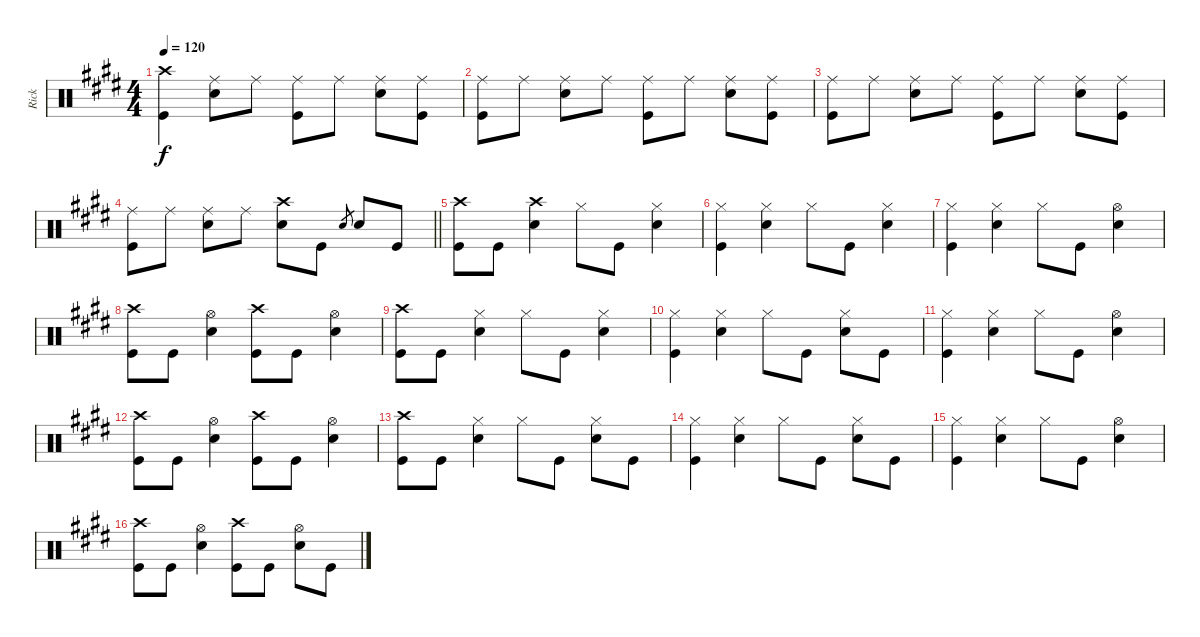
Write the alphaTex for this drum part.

\track ("Rick" "Rick") {instrument percussion}
\staff {score}
\articulation defaults
\ts (4 4)
\tempo 120
\clef neutral
\ks c#minor
("Crash high (hit)" "Kick (hit)").4{dy f} ("Ride (middle)" "Snare (hit) 2").8 "Ride (middle)".8 ("Ride (middle)" "Kick (hit)").8 "Ride (middle)".8 ("Ride (middle)" "Snare (hit) 2").8 ("Ride (middle)" "Kick (hit)").8 |
("Ride (middle)" "Kick (hit)").8 "Ride (middle)".8 ("Ride (middle)" "Snare (hit) 2").8 "Ride (middle)".8 ("Ride (middle)" "Kick (hit)").8 "Ride (middle)".8 ("Ride (middle)" "Snare (hit) 2").8 ("Ride (middle)" "Kick (hit)").8 |
("Ride (middle)" "Kick (hit)").8 "Ride (middle)".8 ("Ride (middle)" "Snare (hit) 2").8 "Ride (middle)".8 ("Ride (middle)" "Kick (hit)").8 "Ride (middle)".8 ("Ride (middle)" "Snare (hit) 2").8 ("Ride (middle)" "Kick (hit)").8 |
\barLineRight lightlight
("Ride (middle)" "Kick (hit)").8 "Ride (middle)".8 ("Ride (middle)" "Snare (hit) 2").8 "Ride (middle)".8 ("Crash high (hit)" "Snare (hit) 2").8 "Kick (hit)".8 "Snare (hit) 2".8{gr} "Snare (hit) 2".8 "Kick (hit)".8 |
("Crash high (hit)" "Kick (hit)").8 "Kick (hit)".8 ("Crash high (hit)" "Snare (hit) 2").4 "Hi-Hat (closed)".8 "Kick (hit)".8 ("Hi-Hat (closed)" "Snare (hit) 2").4 |
("Hi-Hat (closed)" "Kick (hit)").4 ("Hi-Hat (closed)" "Snare (hit) 2").4 "Hi-Hat (closed)".8 "Kick (hit)".8 ("Hi-Hat (closed)" "Snare (hit) 2").4 |
("Hi-Hat (closed)" "Kick (hit)").4 ("Hi-Hat (closed)" "Snare (hit) 2").4 "Hi-Hat (closed)".8 "Kick (hit)".8 ("Hi-Hat (open)" "Snare (hit) 2").4 |
("Crash high (hit)" "Kick (hit)").8 "Kick (hit)".8 ("Hi-Hat (open)" "Snare (hit) 2").4 ("Crash high (hit)" "Kick (hit)").8 "Kick (hit)".8 ("Hi-Hat (open)" "Snare (hit) 2").4 |
("Crash high (hit)" "Kick (hit)").8 "Kick (hit)".8 ("Hi-Hat (closed)" "Snare (hit) 2").4 "Hi-Hat (closed)".8 "Kick (hit)".8 ("Hi-Hat (closed)" "Snare (hit) 2").4 |
("Hi-Hat (closed)" "Kick (hit)").4 ("Hi-Hat (closed)" "Snare (hit) 2").4 "Hi-Hat (closed)".8 "Kick (hit)".8 ("Hi-Hat (closed)" "Snare (hit) 2").8 "Kick (hit)".8 |
("Hi-Hat (closed)" "Kick (hit)").4 ("Hi-Hat (closed)" "Snare (hit) 2").4 "Hi-Hat (closed)".8 "Kick (hit)".8 ("Hi-Hat (open)" "Snare (hit) 2").4 |
("Crash high (hit)" "Kick (hit)").8 "Kick (hit)".8 ("Hi-Hat (open)" "Snare (hit) 2").4 ("Crash high (hit)" "Kick (hit)").8 "Kick (hit)".8 ("Hi-Hat (open)" "Snare (hit) 2").4 |
("Crash high (hit)" "Kick (hit)").8 "Kick (hit)".8 ("Hi-Hat (closed)" "Snare (hit) 2").4 "Hi-Hat (closed)".8 "Kick (hit)".8 ("Hi-Hat (closed)" "Snare (hit) 2").8 "Kick (hit)".8 |
("Hi-Hat (closed)" "Kick (hit)").4 ("Hi-Hat (closed)" "Snare (hit) 2").4 "Hi-Hat (closed)".8 "Kick (hit)".8 ("Hi-Hat (closed)" "Snare (hit) 2").8 "Kick (hit)".8 |
("Hi-Hat (closed)" "Kick (hit)").4 ("Hi-Hat (closed)" "Snare (hit) 2").4 "Hi-Hat (closed)".8 "Kick (hit)".8 ("Hi-Hat (open)" "Snare (hit) 2").4 |
("Crash high (hit)" "Kick (hit)").8 "Kick (hit)".8 ("Hi-Hat (open)" "Snare (hit) 2").4 ("Crash high (hit)" "Kick (hit)").8 "Kick (hit)".8 ("Hi-Hat (open)" "Snare (hit) 2").8 "Kick (hit)".8
